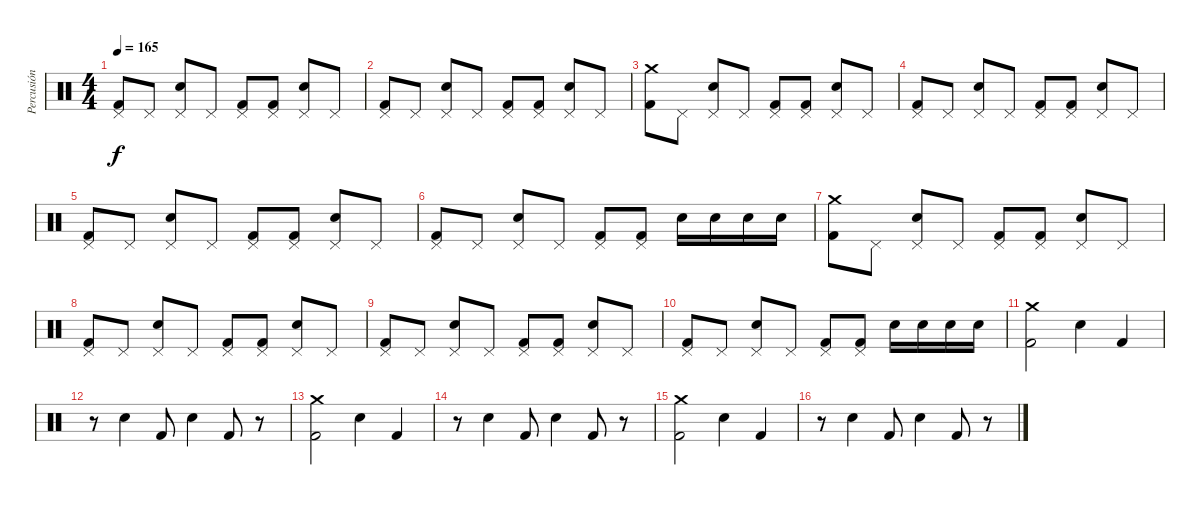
\track ("Percusión" "Percusión") {instrument percussion}
\staff {score}
\articulation defaults
\ts (4 4)
\tempo 165
\clef neutral
\ks c
("Pedal Hi-Hat (hit)" "Kick (hit) 2").8{dy f} "Pedal Hi-Hat (hit)".8 ("Pedal Hi-Hat (hit)" "Electric Snare (hit)").8 "Pedal Hi-Hat (hit)".8 ("Pedal Hi-Hat (hit)" "Kick (hit) 2").8 ("Pedal Hi-Hat (hit)" "Kick (hit) 2").8 ("Pedal Hi-Hat (hit)" "Electric Snare (hit)").8 "Pedal Hi-Hat (hit)".8 |
("Pedal Hi-Hat (hit)" "Kick (hit) 2").8 "Pedal Hi-Hat (hit)".8 ("Pedal Hi-Hat (hit)" "Electric Snare (hit)").8 "Pedal Hi-Hat (hit)".8 ("Pedal Hi-Hat (hit)" "Kick (hit) 2").8 ("Pedal Hi-Hat (hit)" "Kick (hit) 2").8 ("Pedal Hi-Hat (hit)" "Electric Snare (hit)").8 "Pedal Hi-Hat (hit)".8 |
("Crash medium (hit)" "Kick (hit) 2").8 "Pedal Hi-Hat (hit)".8 ("Pedal Hi-Hat (hit)" "Electric Snare (hit)").8 "Pedal Hi-Hat (hit)".8 ("Pedal Hi-Hat (hit)" "Kick (hit) 2").8 ("Pedal Hi-Hat (hit)" "Kick (hit) 2").8 ("Pedal Hi-Hat (hit)" "Electric Snare (hit)").8 "Pedal Hi-Hat (hit)".8 |
("Pedal Hi-Hat (hit)" "Kick (hit) 2").8 "Pedal Hi-Hat (hit)".8 ("Pedal Hi-Hat (hit)" "Electric Snare (hit)").8 "Pedal Hi-Hat (hit)".8 ("Pedal Hi-Hat (hit)" "Kick (hit) 2").8 ("Pedal Hi-Hat (hit)" "Kick (hit) 2").8 ("Pedal Hi-Hat (hit)" "Electric Snare (hit)").8 "Pedal Hi-Hat (hit)".8 |
("Pedal Hi-Hat (hit)" "Kick (hit) 2").8 "Pedal Hi-Hat (hit)".8 ("Pedal Hi-Hat (hit)" "Electric Snare (hit)").8 "Pedal Hi-Hat (hit)".8 ("Pedal Hi-Hat (hit)" "Kick (hit) 2").8 ("Pedal Hi-Hat (hit)" "Kick (hit) 2").8 ("Pedal Hi-Hat (hit)" "Electric Snare (hit)").8 "Pedal Hi-Hat (hit)".8 |
("Pedal Hi-Hat (hit)" "Kick (hit) 2").8 "Pedal Hi-Hat (hit)".8 ("Pedal Hi-Hat (hit)" "Electric Snare (hit)").8 "Pedal Hi-Hat (hit)".8 ("Pedal Hi-Hat (hit)" "Kick (hit) 2").8 ("Pedal Hi-Hat (hit)" "Kick (hit) 2").8 "Electric Snare (hit)".16 "Electric Snare (hit)".16 "Electric Snare (hit)".16 "Electric Snare (hit)".16 |
("Crash medium (hit)" "Kick (hit) 2").8 "Pedal Hi-Hat (hit)".8 ("Pedal Hi-Hat (hit)" "Electric Snare (hit)").8 "Pedal Hi-Hat (hit)".8 ("Pedal Hi-Hat (hit)" "Kick (hit) 2").8 ("Pedal Hi-Hat (hit)" "Kick (hit) 2").8 ("Pedal Hi-Hat (hit)" "Electric Snare (hit)").8 "Pedal Hi-Hat (hit)".8 |
("Pedal Hi-Hat (hit)" "Kick (hit) 2").8 "Pedal Hi-Hat (hit)".8 ("Pedal Hi-Hat (hit)" "Electric Snare (hit)").8 "Pedal Hi-Hat (hit)".8 ("Pedal Hi-Hat (hit)" "Kick (hit) 2").8 ("Pedal Hi-Hat (hit)" "Kick (hit) 2").8 ("Pedal Hi-Hat (hit)" "Electric Snare (hit)").8 "Pedal Hi-Hat (hit)".8 |
("Pedal Hi-Hat (hit)" "Kick (hit) 2").8 "Pedal Hi-Hat (hit)".8 ("Pedal Hi-Hat (hit)" "Electric Snare (hit)").8 "Pedal Hi-Hat (hit)".8 ("Pedal Hi-Hat (hit)" "Kick (hit) 2").8 ("Pedal Hi-Hat (hit)" "Kick (hit) 2").8 ("Pedal Hi-Hat (hit)" "Electric Snare (hit)").8 "Pedal Hi-Hat (hit)".8 |
("Pedal Hi-Hat (hit)" "Kick (hit) 2").8 "Pedal Hi-Hat (hit)".8 ("Pedal Hi-Hat (hit)" "Electric Snare (hit)").8 "Pedal Hi-Hat (hit)".8 ("Pedal Hi-Hat (hit)" "Kick (hit) 2").8 ("Pedal Hi-Hat (hit)" "Kick (hit) 2").8 "Electric Snare (hit)".16 "Electric Snare (hit)".16 "Electric Snare (hit)".16 "Electric Snare (hit)".16 |
("Crash medium (hit)" "Kick (hit) 2").2 "Electric Snare (hit)".4 "Kick (hit) 2".4 |
r.8 "Electric Snare (hit)".4 "Kick (hit) 2".8 "Electric Snare (hit)".4 "Kick (hit) 2".8 r.8 |
("Crash medium (hit)" "Kick (hit) 2").2 "Electric Snare (hit)".4 "Kick (hit) 2".4 |
r.8 "Electric Snare (hit)".4 "Kick (hit) 2".8 "Electric Snare (hit)".4 "Kick (hit) 2".8 r.8 |
("Crash medium (hit)" "Kick (hit) 2").2 "Electric Snare (hit)".4 "Kick (hit) 2".4 |
r.8 "Electric Snare (hit)".4 "Kick (hit) 2".8 "Electric Snare (hit)".4 "Kick (hit) 2".8 r.8
